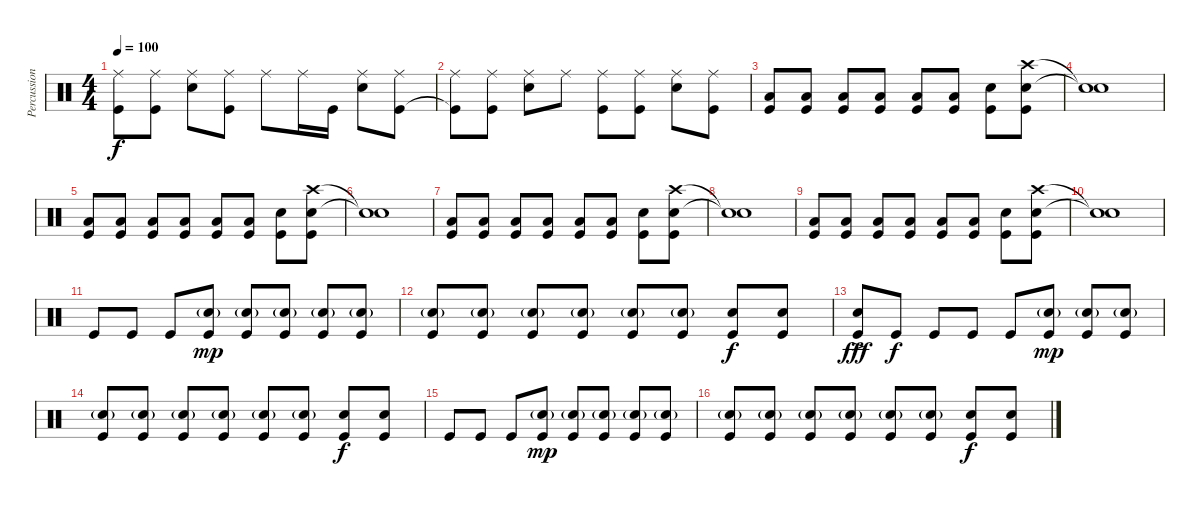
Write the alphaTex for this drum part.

\track ("Percussion" "Percussion") {instrument percussion}
\staff {score}
\articulation defaults
\ts (4 4)
\tempo 100
\clef neutral
\ks c
("Ride (middle)" "Kick (hit)").8{dy f} ("Ride (middle)" "Kick (hit)").8 ("Ride (middle)" "Electric Snare (hit)").8 ("Ride (middle)" "Kick (hit)").8 "Ride (middle)".8 "Ride (middle)".16 "Kick (hit)".16 ("Ride (middle)" "Electric Snare (hit)").8 ("Ride (middle)" "Kick (hit)").8 |
("Ride (middle)" "Kick (hit)"{t}).8 ("Ride (middle)" "Kick (hit)").8 ("Ride (middle)" "Electric Snare (hit)").8 "Ride (middle)".8 ("Ride (middle)" "Kick (hit)").8 ("Ride (middle)" "Kick (hit)").8 ("Ride (middle)" "Electric Snare (hit)").8 ("Ride (middle)" "Kick (hit)").8 |
("Low Tom (hit)" "Kick (hit)").8 ("Low Tom (hit)" "Kick (hit)").8 ("Low Tom (hit)" "Kick (hit)").8 ("Low Tom (hit)" "Kick (hit)").8 ("Low Tom (hit)" "Kick (hit)").8 ("Low Tom (hit)" "Kick (hit)").8 ("Electric Snare (hit)" "Kick (hit)").8 ("Crash high (hit)" "Electric Snare (hit)" "Kick (hit)").8 |
("Snare (hit)"{t} "Snare (hit)"{t}).1 |
("Low Tom (hit)" "Kick (hit)").8 ("Low Tom (hit)" "Kick (hit)").8 ("Low Tom (hit)" "Kick (hit)").8 ("Low Tom (hit)" "Kick (hit)").8 ("Low Tom (hit)" "Kick (hit)").8 ("Low Tom (hit)" "Kick (hit)").8 ("Electric Snare (hit)" "Kick (hit)").8 ("Crash high (hit)" "Electric Snare (hit)" "Kick (hit)").8 |
("Snare (hit)"{t} "Snare (hit)"{t}).1 |
("Low Tom (hit)" "Kick (hit)").8 ("Low Tom (hit)" "Kick (hit)").8 ("Low Tom (hit)" "Kick (hit)").8 ("Low Tom (hit)" "Kick (hit)").8 ("Low Tom (hit)" "Kick (hit)").8 ("Low Tom (hit)" "Kick (hit)").8 ("Electric Snare (hit)" "Kick (hit)").8 ("Crash high (hit)" "Electric Snare (hit)" "Kick (hit)").8 |
("Snare (hit)"{t} "Snare (hit)"{t}).1 |
("Low Tom (hit)" "Kick (hit)").8 ("Low Tom (hit)" "Kick (hit)").8 ("Low Tom (hit)" "Kick (hit)").8 ("Low Tom (hit)" "Kick (hit)").8 ("Low Tom (hit)" "Kick (hit)").8 ("Low Tom (hit)" "Kick (hit)").8 ("Electric Snare (hit)" "Kick (hit)").8 ("Crash high (hit)" "Electric Snare (hit)" "Kick (hit)").8 |
("Snare (hit)"{t} "Snare (hit)"{t}).1 |
"Kick (hit)".8 "Kick (hit)".8 "Kick (hit)".8 ("Electric Snare (hit)"{g} "Kick (hit)").8{dy mp} ("Electric Snare (hit)"{g} "Kick (hit)").8 ("Electric Snare (hit)"{g} "Kick (hit)").8 ("Electric Snare (hit)"{g} "Kick (hit)").8 ("Electric Snare (hit)"{g} "Kick (hit)").8 |
("Electric Snare (hit)"{g} "Kick (hit)").8 ("Electric Snare (hit)"{g} "Kick (hit)").8 ("Electric Snare (hit)"{g} "Kick (hit)").8 ("Electric Snare (hit)"{g} "Kick (hit)").8 ("Electric Snare (hit)"{g} "Kick (hit)").8 ("Electric Snare (hit)"{g} "Kick (hit)").8 ("Electric Snare (hit)" "Kick (hit)").8{dy f} ("Electric Snare (hit)" "Kick (hit)").8 |
("Electric Snare (hit)"{ac} "Kick (hit)").8{dy fff} "Kick (hit)".8{dy f} "Kick (hit)".8 "Kick (hit)".8 "Kick (hit)".8 ("Electric Snare (hit)"{g} "Kick (hit)").8{dy mp} ("Electric Snare (hit)"{g} "Kick (hit)").8 ("Electric Snare (hit)"{g} "Kick (hit)").8 |
("Electric Snare (hit)"{g} "Kick (hit)").8 ("Electric Snare (hit)"{g} "Kick (hit)").8 ("Electric Snare (hit)"{g} "Kick (hit)").8 ("Electric Snare (hit)"{g} "Kick (hit)").8 ("Electric Snare (hit)"{g} "Kick (hit)").8 ("Electric Snare (hit)"{g} "Kick (hit)").8 ("Electric Snare (hit)" "Kick (hit)").8{dy f} ("Electric Snare (hit)" "Kick (hit)").8 |
"Kick (hit)".8 "Kick (hit)".8 "Kick (hit)".8 ("Electric Snare (hit)"{g} "Kick (hit)").8{dy mp} ("Electric Snare (hit)"{g} "Kick (hit)").8 ("Electric Snare (hit)"{g} "Kick (hit)").8 ("Electric Snare (hit)"{g} "Kick (hit)").8 ("Electric Snare (hit)"{g} "Kick (hit)").8 |
("Electric Snare (hit)"{g} "Kick (hit)").8 ("Electric Snare (hit)"{g} "Kick (hit)").8 ("Electric Snare (hit)"{g} "Kick (hit)").8 ("Electric Snare (hit)"{g} "Kick (hit)").8 ("Electric Snare (hit)"{g} "Kick (hit)").8 ("Electric Snare (hit)"{g} "Kick (hit)").8 ("Electric Snare (hit)" "Kick (hit)").8{dy f} ("Electric Snare (hit)" "Kick (hit)").8
